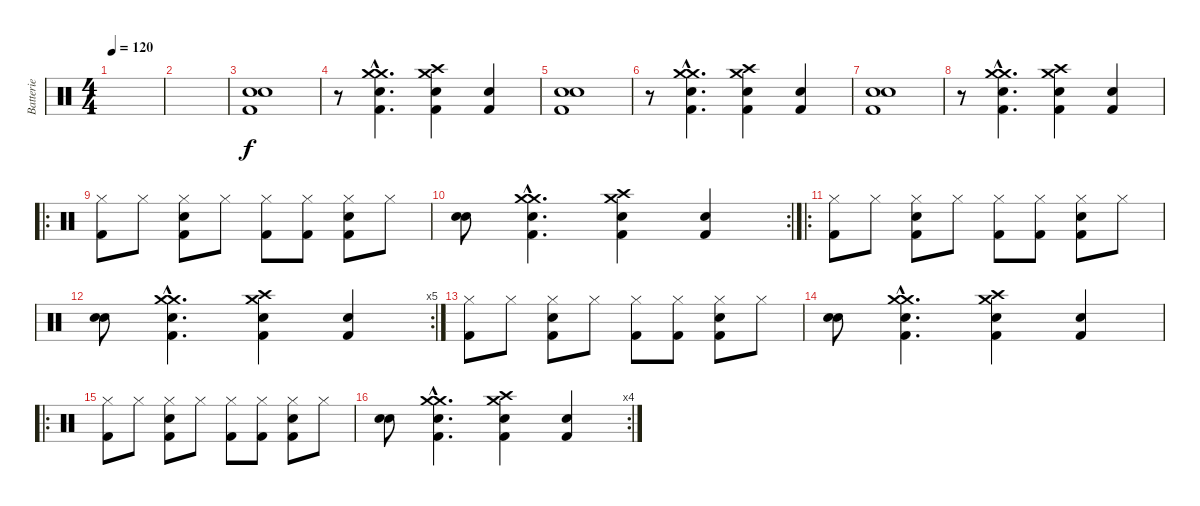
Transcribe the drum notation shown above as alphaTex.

\track ("Batterie" "Batterie") {instrument percussion}
\staff {score}
\articulation defaults
\ts (4 4)
\tempo 120
\clef neutral
\ks c
|
|
("Snare (hit) 2" "Snare (hit) 2" "Kick (hit) 2").1 |
r.8 ("Crash medium (hit)"{hac} "Crash medium (hit)"{hac} "Snare (hit) 2"{hac} "Kick (hit) 2"{hac}).4{d} ("Crash medium (hit)" "Crash high (hit)" "Snare (hit) 2" "Kick (hit) 2").4 ("Snare (hit) 2" "Kick (hit) 2").4 |
("Snare (hit) 2" "Snare (hit) 2" "Kick (hit) 2").1 |
r.8 ("Crash medium (hit)"{hac} "Crash medium (hit)"{hac} "Snare (hit) 2"{hac} "Kick (hit) 2"{hac}).4{d} ("Crash medium (hit)" "Crash high (hit)" "Snare (hit) 2" "Kick (hit) 2").4 ("Snare (hit) 2" "Kick (hit) 2").4 |
("Snare (hit) 2" "Snare (hit) 2" "Kick (hit) 2").1 |
r.8 ("Crash medium (hit)"{hac} "Crash medium (hit)"{hac} "Snare (hit) 2"{hac} "Kick (hit) 2"{hac}).4{d} ("Crash medium (hit)" "Crash high (hit)" "Snare (hit) 2" "Kick (hit) 2").4 ("Snare (hit) 2" "Kick (hit) 2").4 |
\ro
("Hi-Hat (closed)" "Kick (hit) 2").8 "Hi-Hat (closed)".8 ("Hi-Hat (closed)" "Snare (hit) 2" "Kick (hit) 2").8 "Hi-Hat (closed)".8 ("Hi-Hat (closed)" "Kick (hit) 2").8 ("Hi-Hat (closed)" "Kick (hit) 2").8 ("Hi-Hat (closed)" "Snare (hit) 2" "Kick (hit) 2").8 "Hi-Hat (closed)".8 |
\rc 2
("Snare (hit) 2" "Snare (hit) 2").8 ("Crash medium (hit)"{hac} "Crash medium (hit)"{hac} "Snare (hit) 2"{hac} "Kick (hit) 2"{hac}).4{d} ("Crash medium (hit)" "Crash high (hit)" "Snare (hit) 2" "Kick (hit) 2").4 ("Snare (hit) 2" "Kick (hit) 2").4 |
\ro
("Hi-Hat (closed)" "Kick (hit) 2").8 "Hi-Hat (closed)".8 ("Hi-Hat (closed)" "Snare (hit) 2" "Kick (hit) 2").8 "Hi-Hat (closed)".8 ("Hi-Hat (closed)" "Kick (hit) 2").8 ("Hi-Hat (closed)" "Kick (hit) 2").8 ("Hi-Hat (closed)" "Snare (hit) 2" "Kick (hit) 2").8 "Hi-Hat (closed)".8 |
\rc 5
("Snare (hit) 2" "Snare (hit) 2").8 ("Crash medium (hit)"{hac} "Crash medium (hit)"{hac} "Snare (hit) 2"{hac} "Kick (hit) 2"{hac}).4{d} ("Crash medium (hit)" "Crash high (hit)" "Snare (hit) 2" "Kick (hit) 2").4 ("Snare (hit) 2" "Kick (hit) 2").4 |
("Hi-Hat (closed)" "Kick (hit) 2").8 "Hi-Hat (closed)".8 ("Hi-Hat (closed)" "Snare (hit) 2" "Kick (hit) 2").8 "Hi-Hat (closed)".8 ("Hi-Hat (closed)" "Kick (hit) 2").8 ("Hi-Hat (closed)" "Kick (hit) 2").8 ("Hi-Hat (closed)" "Snare (hit) 2" "Kick (hit) 2").8 "Hi-Hat (closed)".8 |
("Snare (hit) 2" "Snare (hit) 2").8 ("Crash medium (hit)"{hac} "Crash medium (hit)"{hac} "Snare (hit) 2"{hac} "Kick (hit) 2"{hac}).4{d} ("Crash medium (hit)" "Crash high (hit)" "Snare (hit) 2" "Kick (hit) 2").4 ("Snare (hit) 2" "Kick (hit) 2").4 |
\ro
("Hi-Hat (closed)" "Kick (hit) 2").8 "Hi-Hat (closed)".8 ("Hi-Hat (closed)" "Snare (hit) 2" "Kick (hit) 2").8 "Hi-Hat (closed)".8 ("Hi-Hat (closed)" "Kick (hit) 2").8 ("Hi-Hat (closed)" "Kick (hit) 2").8 ("Hi-Hat (closed)" "Snare (hit) 2" "Kick (hit) 2").8 "Hi-Hat (closed)".8 |
\rc 4
("Snare (hit) 2" "Snare (hit) 2").8 ("Crash medium (hit)"{hac} "Crash medium (hit)"{hac} "Snare (hit) 2"{hac} "Kick (hit) 2"{hac}).4{d} ("Crash medium (hit)" "Crash high (hit)" "Snare (hit) 2" "Kick (hit) 2").4 ("Snare (hit) 2" "Kick (hit) 2").4
